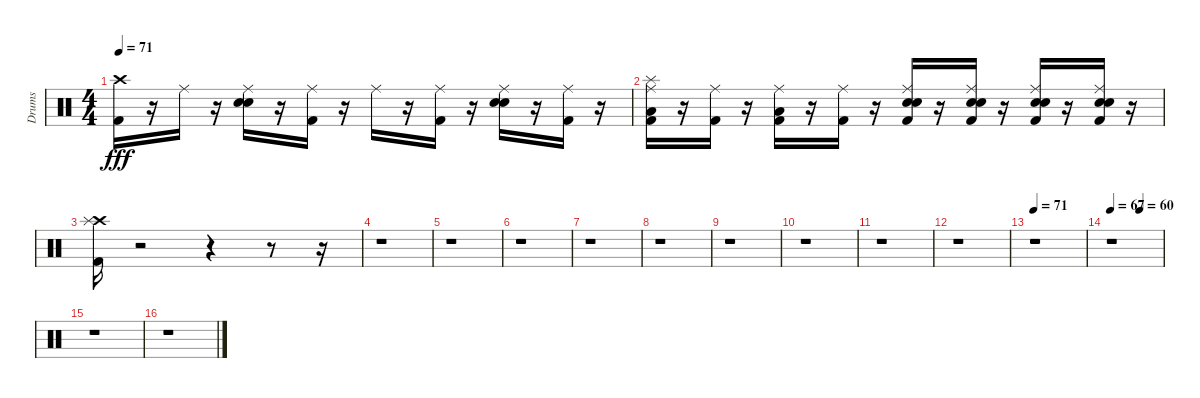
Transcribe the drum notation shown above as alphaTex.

\track ("Drums" "Drums") {instrument percussion}
\staff {score}
\articulation defaults
\ts (4 4)
\tempo 71
\clef neutral
\ks c
("Crash high (hit)" "Kick (hit) 2").16{dy fff} r.16 "Ride (middle)".16 r.16 ("Snare (hit) 2" "Electric Snare (hit)" "Ride (middle)").16 r.16 ("Kick (hit) 2" "Ride (middle)").16 r.16 "Ride (middle)".16 r.16 ("Ride (middle)" "Kick (hit) 2").16 r.16 ("Snare (hit) 2" "Electric Snare (hit)" "Ride (middle)").16 r.16 ("Ride (middle)" "Kick (hit) 2").16 r.16 |
("Low Floor Tom (hit)" "Splash (hit)" "Ride (middle)" "Kick (hit) 2").16 r.16 ("Ride (middle)" "Kick (hit) 2").16 r.16 ("Low Floor Tom (hit)" "Ride (middle)" "Kick (hit) 2").16 r.16 ("Ride (middle)" "Kick (hit) 2").16 r.16 ("Kick (hit) 2" "Snare (hit) 2" "Electric Snare (hit)" "Ride (middle)").16 r.16 ("Kick (hit) 2" "Snare (hit) 2" "Electric Snare (hit)" "Ride (middle)").16 r.16 ("Kick (hit) 2" "Snare (hit) 2" "Electric Snare (hit)" "Ride (middle)").16 r.16 ("Kick (hit) 2" "Snare (hit) 2" "Electric Snare (hit)" "Ride (middle)").16 r.16 |
("Crash high (hit)" "Splash (hit)" "Kick (hit) 2").16 r.2 r.4 r.8 r.16 |
r.1 |
r.1 |
r.1 |
r.1 |
r.1 |
r.1 |
r.1 |
r.1 |
r.1 |
\tempo 68
\tempo 71
r.1 |
\tempo 66
\tempo (60 0.5625)
\tempo 67
r.1 |
r.1 |
r.1
